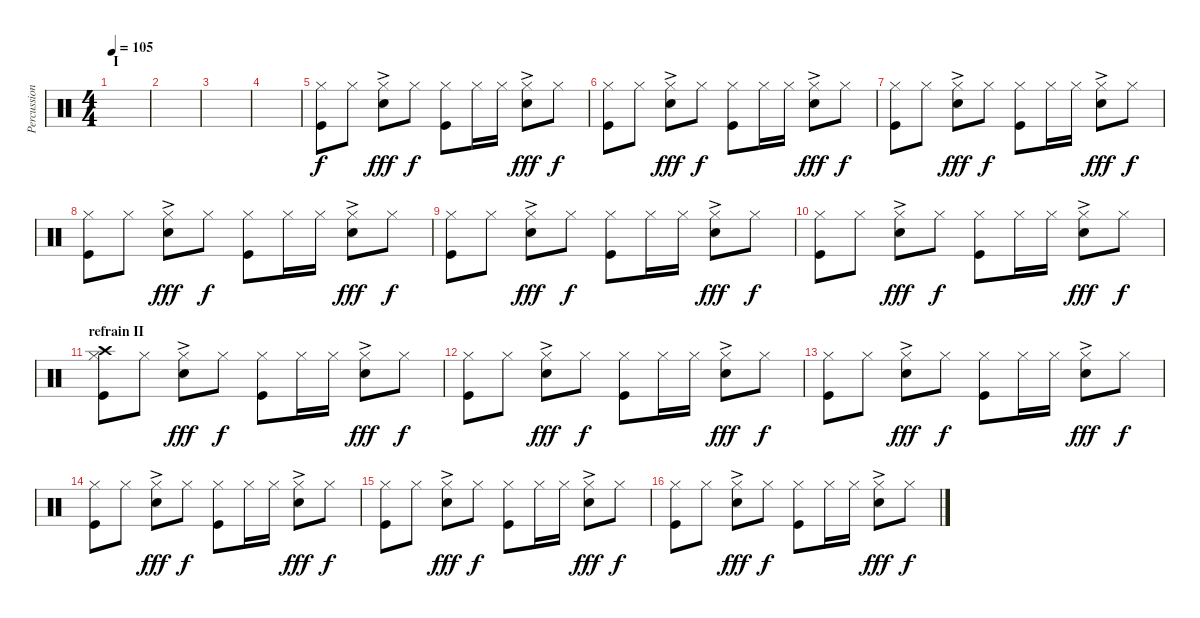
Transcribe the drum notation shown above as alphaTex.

\track ("Percussions" "Percussion") {instrument percussion}
\staff {score}
\articulation defaults
\ts (4 4)
\section ("" "I")
\tempo 105
\clef neutral
\ks c
|
|
|
|
("Kick (hit)" "Hi-Hat (closed)").8 "Hi-Hat (closed)".8 ("Electric Snare (hit)"{ac} "Hi-Hat (closed)").8{dy fff} "Hi-Hat (closed)".8{dy f} ("Kick (hit)" "Hi-Hat (closed)").8 "Hi-Hat (closed)".16 "Hi-Hat (closed)".16 ("Electric Snare (hit)"{ac} "Hi-Hat (closed)").8{dy fff} "Hi-Hat (closed)".8{dy f} |
("Kick (hit)" "Hi-Hat (closed)").8 "Hi-Hat (closed)".8 ("Electric Snare (hit)"{ac} "Hi-Hat (closed)").8{dy fff} "Hi-Hat (closed)".8{dy f} ("Kick (hit)" "Hi-Hat (closed)").8 "Hi-Hat (closed)".16 "Hi-Hat (closed)".16 ("Electric Snare (hit)"{ac} "Hi-Hat (closed)").8{dy fff} "Hi-Hat (closed)".8{dy f} |
("Kick (hit)" "Hi-Hat (closed)").8 "Hi-Hat (closed)".8 ("Electric Snare (hit)"{ac} "Hi-Hat (closed)").8{dy fff} "Hi-Hat (closed)".8{dy f} ("Kick (hit)" "Hi-Hat (closed)").8 "Hi-Hat (closed)".16 "Hi-Hat (closed)".16 ("Electric Snare (hit)"{ac} "Hi-Hat (closed)").8{dy fff} "Hi-Hat (closed)".8{dy f} |
("Kick (hit)" "Hi-Hat (closed)").8 "Hi-Hat (closed)".8 ("Electric Snare (hit)"{ac} "Hi-Hat (closed)").8{dy fff} "Hi-Hat (closed)".8{dy f} ("Kick (hit)" "Hi-Hat (closed)").8 "Hi-Hat (closed)".16 "Hi-Hat (closed)".16 ("Electric Snare (hit)"{ac} "Hi-Hat (closed)").8{dy fff} "Hi-Hat (closed)".8{dy f} |
("Kick (hit)" "Hi-Hat (closed)").8 "Hi-Hat (closed)".8 ("Electric Snare (hit)"{ac} "Hi-Hat (closed)").8{dy fff} "Hi-Hat (closed)".8{dy f} ("Kick (hit)" "Hi-Hat (closed)").8 "Hi-Hat (closed)".16 "Hi-Hat (closed)".16 ("Electric Snare (hit)"{ac} "Hi-Hat (closed)").8{dy fff} "Hi-Hat (closed)".8{dy f} |
("Kick (hit)" "Hi-Hat (closed)").8 "Hi-Hat (closed)".8 ("Electric Snare (hit)"{ac} "Hi-Hat (closed)").8{dy fff} "Hi-Hat (closed)".8{dy f} ("Kick (hit)" "Hi-Hat (closed)").8 "Hi-Hat (closed)".16 "Hi-Hat (closed)".16 ("Electric Snare (hit)"{ac} "Hi-Hat (closed)").8{dy fff} "Hi-Hat (closed)".8{dy f} |
\section ("" "refrain II")
("Kick (hit)" "Crash high (hit)" "Hi-Hat (closed)").8 "Hi-Hat (closed)".8 ("Electric Snare (hit)"{ac} "Hi-Hat (closed)").8{dy fff} "Hi-Hat (closed)".8{dy f} ("Kick (hit)" "Hi-Hat (closed)").8 "Hi-Hat (closed)".16 "Hi-Hat (closed)".16 ("Electric Snare (hit)"{ac} "Hi-Hat (closed)").8{dy fff} "Hi-Hat (closed)".8{dy f} |
("Kick (hit)" "Hi-Hat (closed)").8 "Hi-Hat (closed)".8 ("Electric Snare (hit)"{ac} "Hi-Hat (closed)").8{dy fff} "Hi-Hat (closed)".8{dy f} ("Kick (hit)" "Hi-Hat (closed)").8 "Hi-Hat (closed)".16 "Hi-Hat (closed)".16 ("Electric Snare (hit)"{ac} "Hi-Hat (closed)").8{dy fff} "Hi-Hat (closed)".8{dy f} |
("Kick (hit)" "Hi-Hat (closed)").8 "Hi-Hat (closed)".8 ("Electric Snare (hit)"{ac} "Hi-Hat (closed)").8{dy fff} "Hi-Hat (closed)".8{dy f} ("Kick (hit)" "Hi-Hat (closed)").8 "Hi-Hat (closed)".16 "Hi-Hat (closed)".16 ("Electric Snare (hit)"{ac} "Hi-Hat (closed)").8{dy fff} "Hi-Hat (closed)".8{dy f} |
("Kick (hit)" "Hi-Hat (closed)").8 "Hi-Hat (closed)".8 ("Electric Snare (hit)"{ac} "Hi-Hat (closed)").8{dy fff} "Hi-Hat (closed)".8{dy f} ("Kick (hit)" "Hi-Hat (closed)").8 "Hi-Hat (closed)".16 "Hi-Hat (closed)".16 ("Electric Snare (hit)"{ac} "Hi-Hat (closed)").8{dy fff} "Hi-Hat (closed)".8{dy f} |
("Kick (hit)" "Hi-Hat (closed)").8 "Hi-Hat (closed)".8 ("Electric Snare (hit)"{ac} "Hi-Hat (closed)").8{dy fff} "Hi-Hat (closed)".8{dy f} ("Kick (hit)" "Hi-Hat (closed)").8 "Hi-Hat (closed)".16 "Hi-Hat (closed)".16 ("Electric Snare (hit)"{ac} "Hi-Hat (closed)").8{dy fff} "Hi-Hat (closed)".8{dy f} |
("Kick (hit)" "Hi-Hat (closed)").8 "Hi-Hat (closed)".8 ("Electric Snare (hit)"{ac} "Hi-Hat (closed)").8{dy fff} "Hi-Hat (closed)".8{dy f} ("Kick (hit)" "Hi-Hat (closed)").8 "Hi-Hat (closed)".16 "Hi-Hat (closed)".16 ("Electric Snare (hit)"{ac} "Hi-Hat (closed)").8{dy fff} "Hi-Hat (closed)".8{dy f}
